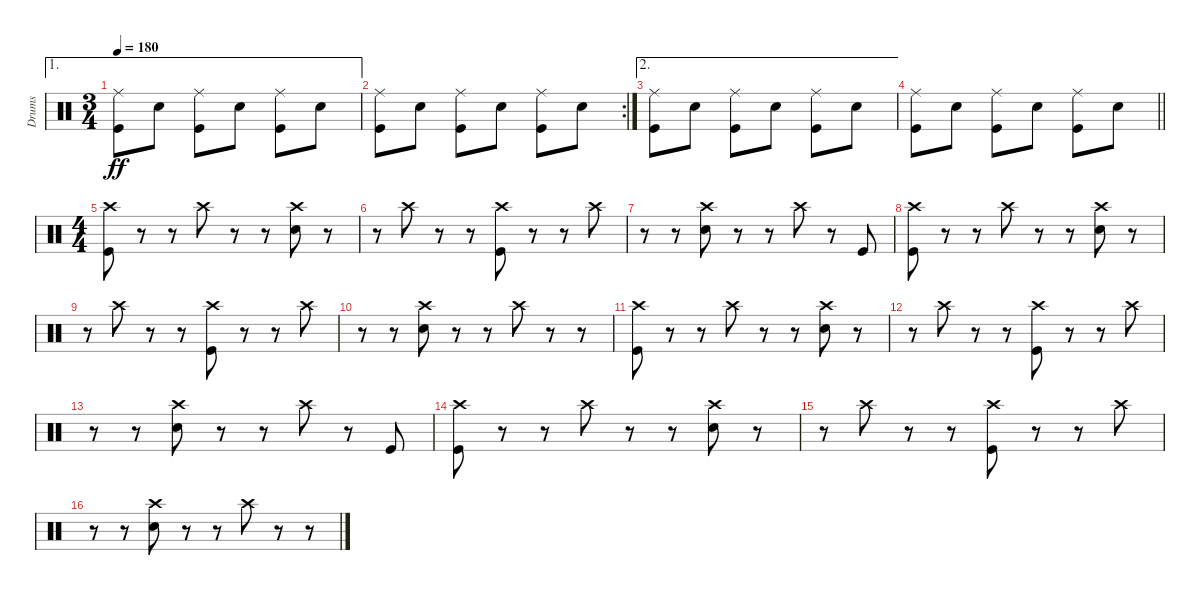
\track ("Drums" "Drums") {instrument percussion}
\staff {score}
\articulation defaults
\ae 1
\ts (3 4)
\tempo 180
\clef neutral
\ks c
("Ride (middle)" "Kick (hit)").8{dy ff} "Snare (hit) 2".8 ("Ride (middle)" "Kick (hit)").8 "Snare (hit) 2".8 ("Ride (middle)" "Kick (hit)").8 "Snare (hit) 2".8 |
\rc 2
("Ride (middle)" "Kick (hit)").8 "Snare (hit) 2".8 ("Ride (middle)" "Kick (hit)").8 "Snare (hit) 2".8 ("Ride (middle)" "Kick (hit)").8 "Snare (hit) 2".8 |
\ae 2
("Ride (middle)" "Kick (hit)").8 "Snare (hit) 2".8 ("Ride (middle)" "Kick (hit)").8 "Snare (hit) 2".8 ("Ride (middle)" "Kick (hit)").8 "Snare (hit) 2".8 |
\barLineRight lightlight
("Ride (middle)" "Kick (hit)").8 "Snare (hit) 2".8 ("Ride (middle)" "Kick (hit)").8 "Snare (hit) 2".8 ("Ride (middle)" "Kick (hit)").8 "Snare (hit) 2".8 |
\ts (4 4)
("Crash high (hit)" "Kick (hit)").8 r.8 r.8 "Crash high (hit)".8 r.8 r.8 ("Crash high (hit)" "Snare (hit) 2").8 r.8 |
r.8 "Crash high (hit)".8 r.8 r.8 ("Crash high (hit)" "Kick (hit)").8 r.8 r.8 "Crash high (hit)".8 |
r.8 r.8 ("Crash high (hit)" "Snare (hit) 2").8 r.8 r.8 "Crash high (hit)".8 r.8 "Kick (hit)".8 |
("Crash high (hit)" "Kick (hit)").8 r.8 r.8 "Crash high (hit)".8 r.8 r.8 ("Crash high (hit)" "Snare (hit) 2").8 r.8 |
r.8 "Crash high (hit)".8 r.8 r.8 ("Crash high (hit)" "Kick (hit)").8 r.8 r.8 "Crash high (hit)".8 |
r.8 r.8 ("Crash high (hit)" "Snare (hit) 2").8 r.8 r.8 "Crash high (hit)".8 r.8 r.8 |
("Crash high (hit)" "Kick (hit)").8 r.8 r.8 "Crash high (hit)".8 r.8 r.8 ("Crash high (hit)" "Snare (hit) 2").8 r.8 |
r.8 "Crash high (hit)".8 r.8 r.8 ("Crash high (hit)" "Kick (hit)").8 r.8 r.8 "Crash high (hit)".8 |
r.8 r.8 ("Crash high (hit)" "Snare (hit) 2").8 r.8 r.8 "Crash high (hit)".8 r.8 "Kick (hit)".8 |
("Crash high (hit)" "Kick (hit)").8 r.8 r.8 "Crash high (hit)".8 r.8 r.8 ("Crash high (hit)" "Snare (hit) 2").8 r.8 |
r.8 "Crash high (hit)".8 r.8 r.8 ("Crash high (hit)" "Kick (hit)").8 r.8 r.8 "Crash high (hit)".8 |
r.8 r.8 ("Crash high (hit)" "Snare (hit) 2").8 r.8 r.8 "Crash high (hit)".8 r.8 r.8
